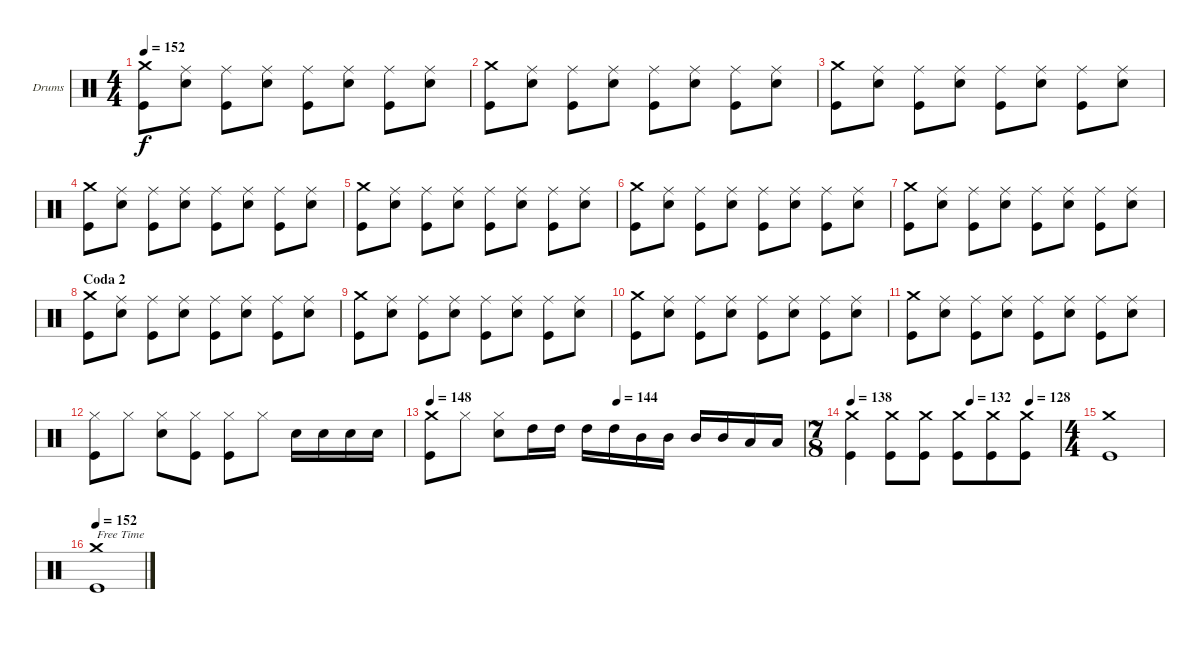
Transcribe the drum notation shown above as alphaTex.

\bracketExtendMode groupsimilarinstruments
\firstSystemTrackNameOrientation horizontal
\otherSystemsTrackNameOrientation horizontal
\track ("Drumkit" "Drums") {instrument percussion}
\staff {score}
\articulation defaults
\ts (4 4)
\tempo 152
\clef neutral
\ks c
("Crash medium (hit)" "Kick (hit)").8{dy f} ("Ride (middle)" "Snare (hit) 2").8 ("Ride (middle)" "Kick (hit)").8 ("Ride (middle)" "Snare (hit) 2").8 ("Ride (middle)" "Kick (hit)").8 ("Ride (middle)" "Snare (hit) 2").8 ("Ride (middle)" "Kick (hit)").8 ("Ride (middle)" "Snare (hit) 2").8 |
("Crash medium (hit)" "Kick (hit)").8 ("Ride (middle)" "Snare (hit) 2").8 ("Ride (middle)" "Kick (hit)").8 ("Ride (middle)" "Snare (hit) 2").8 ("Ride (middle)" "Kick (hit)").8 ("Ride (middle)" "Snare (hit) 2").8 ("Ride (middle)" "Kick (hit)").8 ("Ride (middle)" "Snare (hit) 2").8 |
("Crash medium (hit)" "Kick (hit)").8 ("Ride (middle)" "Snare (hit) 2").8 ("Ride (middle)" "Kick (hit)").8 ("Ride (middle)" "Snare (hit) 2").8 ("Ride (middle)" "Kick (hit)").8 ("Ride (middle)" "Snare (hit) 2").8 ("Ride (middle)" "Kick (hit)").8 ("Ride (middle)" "Snare (hit) 2").8 |
("Crash medium (hit)" "Kick (hit)").8 ("Ride (middle)" "Snare (hit) 2").8 ("Ride (middle)" "Kick (hit)").8 ("Ride (middle)" "Snare (hit) 2").8 ("Ride (middle)" "Kick (hit)").8 ("Ride (middle)" "Snare (hit) 2").8 ("Ride (middle)" "Kick (hit)").8 ("Ride (middle)" "Snare (hit) 2").8 |
("Crash medium (hit)" "Kick (hit)").8 ("Ride (middle)" "Snare (hit) 2").8 ("Ride (middle)" "Kick (hit)").8 ("Ride (middle)" "Snare (hit) 2").8 ("Ride (middle)" "Kick (hit)").8 ("Ride (middle)" "Snare (hit) 2").8 ("Ride (middle)" "Kick (hit)").8 ("Ride (middle)" "Snare (hit) 2").8 |
("Crash medium (hit)" "Kick (hit)").8 ("Ride (middle)" "Snare (hit) 2").8 ("Ride (middle)" "Kick (hit)").8 ("Ride (middle)" "Snare (hit) 2").8 ("Ride (middle)" "Kick (hit)").8 ("Ride (middle)" "Snare (hit) 2").8 ("Ride (middle)" "Kick (hit)").8 ("Ride (middle)" "Snare (hit) 2").8 |
("Crash medium (hit)" "Kick (hit)").8 ("Ride (middle)" "Snare (hit) 2").8 ("Ride (middle)" "Kick (hit)").8 ("Ride (middle)" "Snare (hit) 2").8 ("Ride (middle)" "Kick (hit)").8 ("Ride (middle)" "Snare (hit) 2").8 ("Ride (middle)" "Kick (hit)").8 ("Ride (middle)" "Snare (hit) 2").8 |
\section ("" "Coda 2")
("Crash medium (hit)" "Kick (hit)").8 ("Ride (middle)" "Snare (hit) 2").8 ("Ride (middle)" "Kick (hit)").8 ("Ride (middle)" "Snare (hit) 2").8 ("Ride (middle)" "Kick (hit)").8 ("Ride (middle)" "Snare (hit) 2").8 ("Ride (middle)" "Kick (hit)").8 ("Ride (middle)" "Snare (hit) 2").8 |
("Crash medium (hit)" "Kick (hit)").8 ("Ride (middle)" "Snare (hit) 2").8 ("Ride (middle)" "Kick (hit)").8 ("Ride (middle)" "Snare (hit) 2").8 ("Ride (middle)" "Kick (hit)").8 ("Ride (middle)" "Snare (hit) 2").8 ("Ride (middle)" "Kick (hit)").8 ("Ride (middle)" "Snare (hit) 2").8 |
("Crash medium (hit)" "Kick (hit)").8 ("Ride (middle)" "Snare (hit) 2").8 ("Ride (middle)" "Kick (hit)").8 ("Ride (middle)" "Snare (hit) 2").8 ("Ride (middle)" "Kick (hit)").8 ("Ride (middle)" "Snare (hit) 2").8 ("Ride (middle)" "Kick (hit)").8 ("Ride (middle)" "Snare (hit) 2").8 |
("Crash medium (hit)" "Kick (hit)").8 ("Ride (middle)" "Snare (hit) 2").8 ("Ride (middle)" "Kick (hit)").8 ("Ride (middle)" "Snare (hit) 2").8 ("Ride (middle)" "Kick (hit)").8 ("Ride (middle)" "Snare (hit) 2").8 ("Ride (middle)" "Kick (hit)").8 ("Ride (middle)" "Snare (hit) 2").8 |
("Hi-Hat (closed)" "Kick (hit)").8 "Hi-Hat (closed)".8 ("Hi-Hat (closed)" "Snare (hit) 2").8 ("Hi-Hat (closed)" "Kick (hit)").8 ("Hi-Hat (closed)" "Kick (hit)").8 "Hi-Hat (closed)".8 "Snare (hit) 2".16 "Snare (hit) 2".16 "Snare (hit) 2".16 "Snare (hit) 2".16 |
\tempo 148
\tempo (144 0.5)
("Crash medium (hit)" "Kick (hit)").8 "Hi-Hat (closed)".8 ("Hi-Hat (closed)" "Snare (hit) 2").8 "High Tom (hit)".16 "High Tom (hit)".16 "High Tom (hit)".16 "High Tom (hit)".16 "Mid Tom (hit)".16 "Mid Tom (hit)".16 "Mid Tom (hit)".16 "Mid Tom (hit)".16 "Low Tom (hit)".16 "Low Tom (hit)".16 |
\ts (7 8)
\tempo 138
\tempo (132 0.571429)
\tempo (128 0.857143)
("Crash medium (hit)" "Kick (hit)").4 ("Crash medium (hit)" "Kick (hit)").8 ("Crash medium (hit)" "Kick (hit)").8 ("Crash medium (hit)" "Kick (hit)").8 ("Crash medium (hit)" "Kick (hit)").8 ("Crash medium (hit)" "Kick (hit)").8 |
\ts (4 4)
("Crash medium (hit)" "Kick (hit)").1 |
\tempo 152
("Crash medium (hit)" "Kick (hit)").1{txt "Free Time"}
